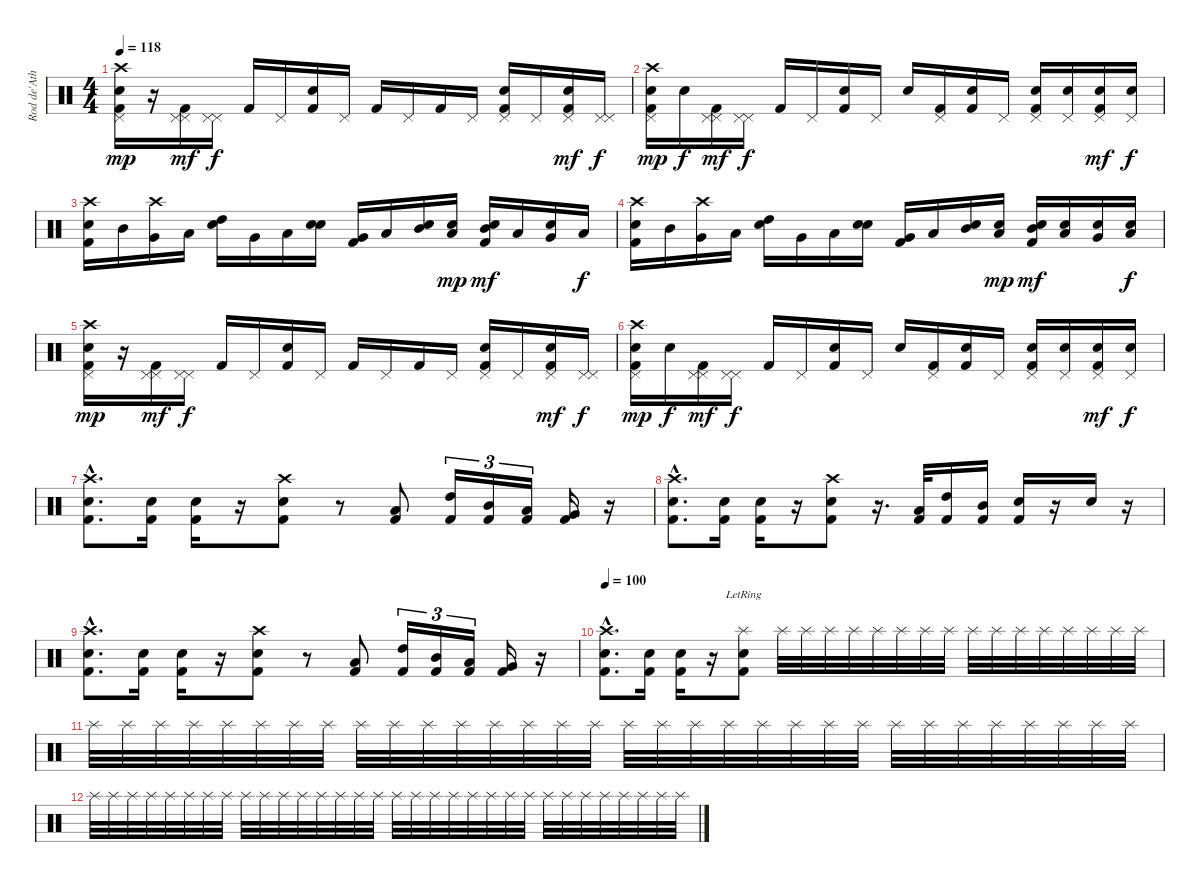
\track ("Rod de'Ath" "Rod de'Ath") {instrument percussion}
\staff {score}
\articulation defaults
\ts (4 4)
\tempo 118
\clef neutral
\ks c
("Crash high (hit)" "Snare (hit) 2" "Pedal Hi-Hat (hit)" "Kick (hit) 2").16{dy mp} r.16 ("Pedal Hi-Hat (hit)" "Pedal Hi-Hat (hit)" "Kick (hit) 2").16{dy mf} ("Pedal Hi-Hat (hit)" "Pedal Hi-Hat (hit)").16{dy f} "Kick (hit) 2".16 "Pedal Hi-Hat (hit)".16 ("Snare (hit) 2" "Kick (hit) 2").16 "Pedal Hi-Hat (hit)".16 "Kick (hit) 2".16 "Pedal Hi-Hat (hit)".16 "Kick (hit) 2".16 "Pedal Hi-Hat (hit)".16 ("Snare (hit) 2" "Pedal Hi-Hat (hit)" "Kick (hit) 2").16 "Pedal Hi-Hat (hit)".16 ("Snare (hit) 2" "Pedal Hi-Hat (hit)" "Kick (hit) 2").16{dy mf} ("Pedal Hi-Hat (hit)" "Pedal Hi-Hat (hit)").16{dy f} |
("Crash high (hit)" "Snare (hit) 2" "Pedal Hi-Hat (hit)" "Kick (hit) 2").16{dy mp} "Electric Snare (hit)".16{dy f} ("Pedal Hi-Hat (hit)" "Pedal Hi-Hat (hit)" "Kick (hit) 2").16{dy mf} ("Pedal Hi-Hat (hit)" "Pedal Hi-Hat (hit)").16{dy f} "Kick (hit) 2".16 "Pedal Hi-Hat (hit)".16 ("Snare (hit) 2" "Kick (hit) 2").16 "Pedal Hi-Hat (hit)".16 "Snare (hit) 2".16 ("Pedal Hi-Hat (hit)" "Kick (hit) 2").16 ("Snare (hit) 2" "Kick (hit) 2").16 "Pedal Hi-Hat (hit)".16 ("Snare (hit) 2" "Pedal Hi-Hat (hit)" "Kick (hit) 2").16 ("Snare (hit) 2" "Pedal Hi-Hat (hit)").16 ("Snare (hit) 2" "Pedal Hi-Hat (hit)" "Kick (hit) 2").16{dy mf} ("Snare (hit) 2" "Pedal Hi-Hat (hit)").16{dy f} |
("Crash high (hit)" "Snare (hit) 2" "Kick (hit) 2").16 "Mid Tom (hit)".16 ("Crash high (hit)" "Very Low Tom (hit)").16 "Low Tom (hit)".16 ("Snare (hit) 2" "High Tom (hit)").16 "Very Low Tom (hit)".16 "Low Tom (hit)".16 ("Electric Snare (hit)" "Snare (hit) 2").16 ("Very Low Tom (hit)" "Kick (hit) 2").16 "Low Tom (hit)".16 ("Electric Snare (hit)" "Mid Tom (hit)").16 ("Electric Snare (hit)" "Low Tom (hit)").16{dy mp} ("Snare (hit) 2" "Mid Tom (hit)" "Kick (hit) 2").16{dy mf} "Low Tom (hit)".16 ("Snare (hit) 2" "Very Low Tom (hit)").16 "Low Tom (hit)".16{dy f} |
("Crash high (hit)" "Snare (hit) 2" "Kick (hit) 2").16 "Mid Tom (hit)".16 ("Crash high (hit)" "Very Low Tom (hit)").16 "Low Tom (hit)".16 ("Snare (hit) 2" "High Tom (hit)").16 "Very Low Tom (hit)".16 "Low Tom (hit)".16 ("Electric Snare (hit)" "Snare (hit) 2").16 ("Very Low Tom (hit)" "Kick (hit) 2").16 "Low Tom (hit)".16 ("Electric Snare (hit)" "Mid Tom (hit)").16 ("Electric Snare (hit)" "Low Tom (hit)").16{dy mp} ("Electric Snare (hit)" "Mid Tom (hit)" "Kick (hit) 2").16{dy mf} ("Electric Snare (hit)" "Low Tom (hit)").16 ("Electric Snare (hit)" "Very Low Tom (hit)").16 ("Electric Snare (hit)" "Low Tom (hit)").16{dy f} |
("Crash high (hit)" "Snare (hit) 2" "Pedal Hi-Hat (hit)" "Kick (hit) 2").16{dy mp} r.16 ("Pedal Hi-Hat (hit)" "Pedal Hi-Hat (hit)" "Kick (hit) 2").16{dy mf} ("Pedal Hi-Hat (hit)" "Pedal Hi-Hat (hit)").16{dy f} "Kick (hit) 2".16 "Pedal Hi-Hat (hit)".16 ("Snare (hit) 2" "Kick (hit) 2").16 "Pedal Hi-Hat (hit)".16 "Kick (hit) 2".16 "Pedal Hi-Hat (hit)".16 "Kick (hit) 2".16 "Pedal Hi-Hat (hit)".16 ("Snare (hit) 2" "Pedal Hi-Hat (hit)" "Kick (hit) 2").16 "Pedal Hi-Hat (hit)".16 ("Snare (hit) 2" "Pedal Hi-Hat (hit)" "Kick (hit) 2").16{dy mf} ("Pedal Hi-Hat (hit)" "Pedal Hi-Hat (hit)").16{dy f} |
("Crash high (hit)" "Snare (hit) 2" "Pedal Hi-Hat (hit)" "Kick (hit) 2").16{dy mp} "Electric Snare (hit)".16{dy f} ("Pedal Hi-Hat (hit)" "Pedal Hi-Hat (hit)" "Kick (hit) 2").16{dy mf} ("Pedal Hi-Hat (hit)" "Pedal Hi-Hat (hit)").16{dy f} "Kick (hit) 2".16 "Pedal Hi-Hat (hit)".16 ("Snare (hit) 2" "Kick (hit) 2").16 "Pedal Hi-Hat (hit)".16 "Snare (hit) 2".16 ("Pedal Hi-Hat (hit)" "Kick (hit) 2").16 ("Snare (hit) 2" "Kick (hit) 2").16 "Pedal Hi-Hat (hit)".16 ("Snare (hit) 2" "Pedal Hi-Hat (hit)" "Kick (hit) 2").16 ("Snare (hit) 2" "Pedal Hi-Hat (hit)").16 ("Snare (hit) 2" "Pedal Hi-Hat (hit)" "Kick (hit) 2").16{dy mf} ("Snare (hit) 2" "Pedal Hi-Hat (hit)").16{dy f} |
("Crash high (hit)"{hac} "Snare (hit) 2"{hac} "Kick (hit) 2"{hac}).8{d volume 15} ("Snare (hit) 2" "Kick (hit) 2").16 ("Snare (hit) 2" "Kick (hit) 2").16 r.16 ("Crash high (hit)" "Snare (hit) 2" "Kick (hit) 2").8 r.8 ("Low Tom (hit)" "Kick (hit) 2").8 ("High Tom (hit)" "Kick (hit) 2").16{tu (3 2)} ("Mid Tom (hit)" "Kick (hit) 2").16{tu (3 2)} ("Low Tom (hit)" "Kick (hit) 2").16{tu (3 2)} ("Very Low Tom (hit)" "Kick (hit) 2").16 r.16 |
("Crash high (hit)"{hac} "Snare (hit) 2"{hac} "Kick (hit) 2"{hac}).8{d} ("Snare (hit) 2" "Kick (hit) 2").16 ("Snare (hit) 2" "Kick (hit) 2").16 r.16 ("Crash high (hit)" "Snare (hit) 2" "Kick (hit) 2").8 r.16{d} ("Low Tom (hit)" "Kick (hit) 2").32 ("High Tom (hit)" "Kick (hit) 2").16 ("Mid Tom (hit)" "Kick (hit) 2").16 ("Electric Snare (hit)" "Kick (hit) 2").16 r.16 "Electric Snare (hit)".16 r.16 |
("Crash high (hit)"{hac} "Snare (hit) 2"{hac} "Kick (hit) 2"{hac}).8{d} ("Snare (hit) 2" "Kick (hit) 2").16 ("Snare (hit) 2" "Kick (hit) 2").16 r.16 ("Crash high (hit)" "Snare (hit) 2" "Kick (hit) 2").8 r.8 ("Low Tom (hit)" "Kick (hit) 2").8 ("High Tom (hit)" "Kick (hit) 2").16{tu (3 2)} ("Mid Tom (hit)" "Kick (hit) 2").16{tu (3 2)} ("Low Tom (hit)" "Kick (hit) 2").16{tu (3 2)} ("Very Low Tom (hit)" "Kick (hit) 2").16 r.16 |
\tempo 100
("Crash high (hit)"{hac} "Snare (hit) 2"{hac} "Kick (hit) 2"{hac}).8{d} ("Snare (hit) 2" "Kick (hit) 2").16 ("Snare (hit) 2" "Kick (hit) 2").16 r.16 ("Splash (hit)"{lr} "Snare (hit) 2" "Kick (hit) 2").8 "Splash (hit)".32{volume 0} "Splash (hit)".32 "Splash (hit)".32 "Splash (hit)".32 "Splash (hit)".32 "Splash (hit)".32 "Splash (hit)".32 "Splash (hit)".32 "Splash (hit)".32 "Splash (hit)".32 "Splash (hit)".32 "Splash (hit)".32 "Splash (hit)".32 "Splash (hit)".32 "Splash (hit)".32 "Splash (hit)".32 |
"Splash (hit)".32 "Splash (hit)".32 "Splash (hit)".32 "Splash (hit)".32 "Splash (hit)".32 "Splash (hit)".32 "Splash (hit)".32 "Splash (hit)".32 "Splash (hit)".32 "Splash (hit)".32 "Splash (hit)".32 "Splash (hit)".32 "Splash (hit)".32 "Splash (hit)".32 "Splash (hit)".32 "Splash (hit)".32 "Splash (hit)".32 "Splash (hit)".32 "Splash (hit)".32 "Splash (hit)".32 "Splash (hit)".32 "Splash (hit)".32 "Splash (hit)".32 "Splash (hit)".32 "Splash (hit)".32 "Splash (hit)".32 "Splash (hit)".32 "Splash (hit)".32 "Splash (hit)".32 "Splash (hit)".32 "Splash (hit)".32 "Splash (hit)".32 |
"Splash (hit)".32 "Splash (hit)".32 "Splash (hit)".32 "Splash (hit)".32 "Splash (hit)".32 "Splash (hit)".32 "Splash (hit)".32 "Splash (hit)".32 "Splash (hit)".32 "Splash (hit)".32 "Splash (hit)".32 "Splash (hit)".32 "Splash (hit)".32 "Splash (hit)".32 "Splash (hit)".32 "Splash (hit)".32 "Splash (hit)".32 "Splash (hit)".32 "Splash (hit)".32 "Splash (hit)".32 "Splash (hit)".32 "Splash (hit)".32 "Splash (hit)".32 "Splash (hit)".32 "Splash (hit)".32 "Splash (hit)".32 "Splash (hit)".32 "Splash (hit)".32 "Splash (hit)".32 "Splash (hit)".32 "Splash (hit)".32 "Splash (hit)".32
